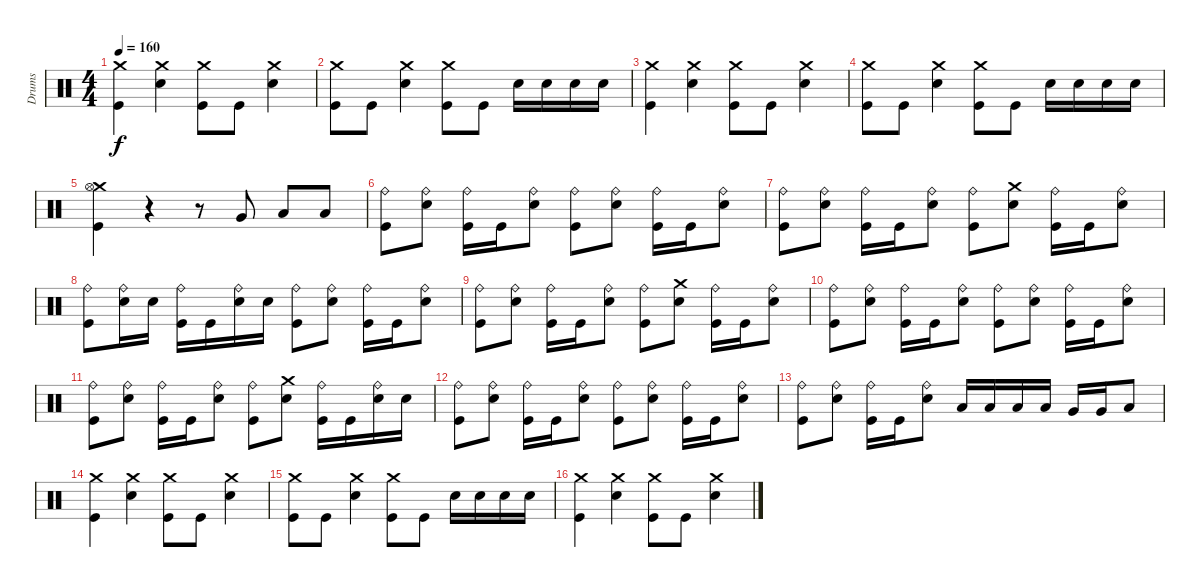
\track ("Drums" "Drums") {instrument percussion}
\staff {score}
\articulation defaults
\ts (4 4)
\tempo 160
\clef neutral
\ks c
("Crash medium (hit)" "Kick (hit)").4{dy f} ("Crash medium (hit)" "Electric Snare (hit)").4 ("Crash medium (hit)" "Kick (hit)").8 "Kick (hit)".8 ("Crash medium (hit)" "Electric Snare (hit)").4 |
("Crash medium (hit)" "Kick (hit)").8 "Kick (hit)".8 ("Crash medium (hit)" "Electric Snare (hit)").4 ("Crash medium (hit)" "Kick (hit)").8 "Kick (hit)".8 "Electric Snare (hit)".16 "Electric Snare (hit)".16 "Electric Snare (hit)".16 "Electric Snare (hit)".16 |
("Crash medium (hit)" "Kick (hit)").4 ("Crash medium (hit)" "Electric Snare (hit)").4 ("Crash medium (hit)" "Kick (hit)").8 "Kick (hit)".8 ("Crash medium (hit)" "Electric Snare (hit)").4 |
("Crash medium (hit)" "Kick (hit)").8 "Kick (hit)".8 ("Crash medium (hit)" "Electric Snare (hit)").4 ("Crash medium (hit)" "Kick (hit)").8 "Kick (hit)".8 "Electric Snare (hit)".16 "Electric Snare (hit)".16 "Electric Snare (hit)".16 "Electric Snare (hit)".16 |
("Crash medium (hit)" "Hi-Hat (open)" "Kick (hit)").4 r.4 r.8 "Very Low Tom (hit)".8 "Low Tom (hit)".8 "Low Tom (hit)".8 |
("Ride (bell)" "Kick (hit)").8 ("Ride (bell)" "Electric Snare (hit)").8 ("Ride (bell)" "Kick (hit)").16 "Kick (hit)".16 ("Ride (bell)" "Electric Snare (hit)").8 ("Ride (bell)" "Kick (hit)").8 ("Ride (bell)" "Electric Snare (hit)").8 ("Ride (bell)" "Kick (hit)").16 "Kick (hit)".16 ("Ride (bell)" "Electric Snare (hit)").8 |
("Ride (bell)" "Kick (hit)").8 ("Ride (bell)" "Electric Snare (hit)").8 ("Ride (bell)" "Kick (hit)").16 "Kick (hit)".16 ("Ride (bell)" "Electric Snare (hit)").8 ("Ride (bell)" "Kick (hit)").8 ("Crash medium (hit)" "Electric Snare (hit)").8 ("Ride (bell)" "Kick (hit)").16 "Kick (hit)".16 ("Ride (bell)" "Electric Snare (hit)").8 |
("Ride (bell)" "Kick (hit)").8 ("Ride (bell)" "Electric Snare (hit)").16 "Electric Snare (hit)".16 ("Ride (bell)" "Kick (hit)").16 "Kick (hit)".16 ("Ride (bell)" "Electric Snare (hit)").16 "Electric Snare (hit)".16 ("Ride (bell)" "Kick (hit)").8 ("Ride (bell)" "Electric Snare (hit)").8 ("Ride (bell)" "Kick (hit)").16 "Kick (hit)".16 ("Ride (bell)" "Electric Snare (hit)").8 |
("Ride (bell)" "Kick (hit)").8 ("Ride (bell)" "Electric Snare (hit)").8 ("Ride (bell)" "Kick (hit)").16 "Kick (hit)".16 ("Ride (bell)" "Electric Snare (hit)").8 ("Ride (bell)" "Kick (hit)").8 ("Crash medium (hit)" "Electric Snare (hit)").8 ("Ride (bell)" "Kick (hit)").16 "Kick (hit)".16 ("Ride (bell)" "Electric Snare (hit)").8 |
("Ride (bell)" "Kick (hit)").8 ("Ride (bell)" "Electric Snare (hit)").8 ("Ride (bell)" "Kick (hit)").16 "Kick (hit)".16 ("Ride (bell)" "Electric Snare (hit)").8 ("Ride (bell)" "Kick (hit)").8 ("Ride (bell)" "Electric Snare (hit)").8 ("Ride (bell)" "Kick (hit)").16 "Kick (hit)".16 ("Ride (bell)" "Electric Snare (hit)").8 |
("Ride (bell)" "Kick (hit)").8 ("Ride (bell)" "Electric Snare (hit)").8 ("Ride (bell)" "Kick (hit)").16 "Kick (hit)".16 ("Ride (bell)" "Electric Snare (hit)").8 ("Ride (bell)" "Kick (hit)").8 ("Crash medium (hit)" "Electric Snare (hit)").8 ("Ride (bell)" "Kick (hit)").16 "Kick (hit)".16 ("Ride (bell)" "Electric Snare (hit)").16 "Electric Snare (hit)".16 |
("Ride (bell)" "Kick (hit)").8 ("Ride (bell)" "Electric Snare (hit)").8 ("Ride (bell)" "Kick (hit)").16 "Kick (hit)".16 ("Ride (bell)" "Electric Snare (hit)").8 ("Ride (bell)" "Kick (hit)").8 ("Ride (bell)" "Electric Snare (hit)").8 ("Ride (bell)" "Kick (hit)").16 "Kick (hit)".16 ("Ride (bell)" "Electric Snare (hit)").8 |
("Ride (bell)" "Kick (hit)").8 ("Ride (bell)" "Electric Snare (hit)").8 ("Ride (bell)" "Kick (hit)").16 "Kick (hit)".16 ("Ride (bell)" "Electric Snare (hit)").8 "Low Tom (hit)".16 "Low Tom (hit)".16 "Low Tom (hit)".16 "Low Tom (hit)".16 "Very Low Tom (hit)".16 "Very Low Tom (hit)".16 "Low Tom (hit)".8 |
("Crash medium (hit)" "Kick (hit)").4 ("Crash medium (hit)" "Electric Snare (hit)").4 ("Crash medium (hit)" "Kick (hit)").8 "Kick (hit)".8 ("Crash medium (hit)" "Electric Snare (hit)").4 |
("Crash medium (hit)" "Kick (hit)").8 "Kick (hit)".8 ("Crash medium (hit)" "Electric Snare (hit)").4 ("Crash medium (hit)" "Kick (hit)").8 "Kick (hit)".8 "Electric Snare (hit)".16 "Electric Snare (hit)".16 "Electric Snare (hit)".16 "Electric Snare (hit)".16 |
("Crash medium (hit)" "Kick (hit)").4 ("Crash medium (hit)" "Electric Snare (hit)").4 ("Crash medium (hit)" "Kick (hit)").8 "Kick (hit)".8 ("Crash medium (hit)" "Electric Snare (hit)").4
